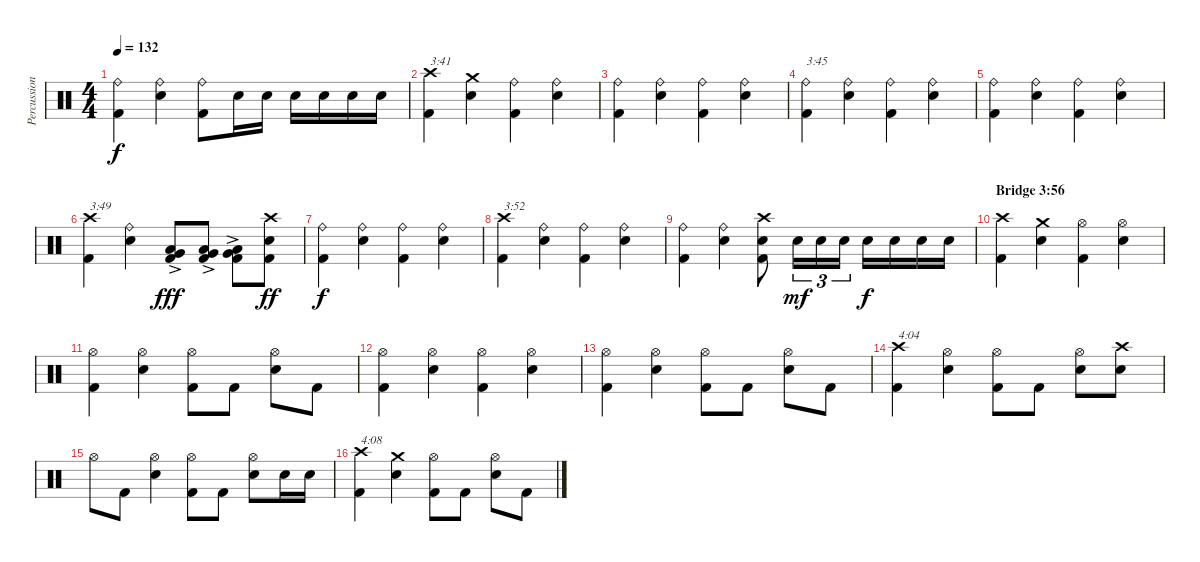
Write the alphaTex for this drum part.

\track ("Percussion" "Percussion") {instrument percussion}
\staff {score}
\articulation defaults
\ts (4 4)
\tempo 132
\clef neutral
\ks c
("Kick (hit) 2" "Ride (bell)").4{dy f} ("Electric Snare (hit)" "Ride (bell)").4 ("Kick (hit) 2" "Ride (bell)").8 "Electric Snare (hit)".16 "Electric Snare (hit)".16 "Electric Snare (hit)".16 "Electric Snare (hit)".16 "Electric Snare (hit)".16 "Electric Snare (hit)".16 |
("Kick (hit) 2" "Crash high (hit)").4{txt "3:41"} ("Electric Snare (hit)" "Crash medium (hit)").4 ("Kick (hit) 2" "Ride (bell)").4 ("Electric Snare (hit)" "Ride (bell)").4 |
("Kick (hit) 2" "Ride (bell)").4 ("Electric Snare (hit)" "Ride (bell)").4 ("Kick (hit) 2" "Ride (bell)").4 ("Electric Snare (hit)" "Ride (bell)").4 |
("Kick (hit) 2" "Ride (bell)").4{txt "3:45"} ("Electric Snare (hit)" "Ride (bell)").4 ("Kick (hit) 2" "Ride (bell)").4 ("Electric Snare (hit)" "Ride (bell)").4 |
("Kick (hit) 2" "Ride (bell)").4 ("Electric Snare (hit)" "Ride (bell)").4 ("Kick (hit) 2" "Ride (bell)").4 ("Electric Snare (hit)" "Ride (bell)").4 |
("Kick (hit) 2" "Crash high (hit)").4{txt "3:49"} ("Electric Snare (hit)" "Ride (bell)").4 ("Kick (hit) 2" "Low Tom (hit)"{ac} "Very Low Tom (hit)").8{dy fff} ("Kick (hit) 2" "Low Tom (hit)"{ac} "Very Low Tom (hit)").8 ("Kick (hit) 2" "Low Tom (hit)"{ac} "Very Low Tom (hit)").8 ("Kick (hit) 2" "Electric Snare (hit)" "Crash high (hit)").8{dy ff} |
("Kick (hit) 2" "Ride (bell)").4{dy f} ("Electric Snare (hit)" "Ride (bell)").4 ("Kick (hit) 2" "Ride (bell)").4 ("Electric Snare (hit)" "Ride (bell)").4 |
("Kick (hit) 2" "Crash high (hit)").4{txt "3:52"} ("Electric Snare (hit)" "Ride (bell)").4 ("Kick (hit) 2" "Ride (bell)").4 ("Electric Snare (hit)" "Ride (bell)").4 |
("Kick (hit) 2" "Ride (bell)").4 ("Electric Snare (hit)" "Ride (bell)").4 ("Kick (hit) 2" "Electric Snare (hit)" "Crash high (hit)").8 "Electric Snare (hit)".16{tu (3 2) dy mf} "Electric Snare (hit)".16{tu (3 2)} "Electric Snare (hit)".16{tu (3 2)} "Electric Snare (hit)".16{dy f} "Electric Snare (hit)".16 "Electric Snare (hit)".16 "Electric Snare (hit)".16 |
\section ("" "Bridge 3:56")
("Kick (hit) 2" "Crash high (hit)").4 ("Electric Snare (hit)" "Crash medium (hit)").4 ("Kick (hit) 2" "Hi-Hat (open)").4 ("Electric Snare (hit)" "Hi-Hat (open)").4 |
("Kick (hit) 2" "Hi-Hat (open)").4 ("Electric Snare (hit)" "Hi-Hat (open)").4 ("Kick (hit) 2" "Hi-Hat (open)").8 "Kick (hit) 2".8 ("Electric Snare (hit)" "Hi-Hat (open)").8 "Kick (hit) 2".8 |
("Kick (hit) 2" "Hi-Hat (open)").4 ("Electric Snare (hit)" "Hi-Hat (open)").4 ("Kick (hit) 2" "Hi-Hat (open)").4 ("Electric Snare (hit)" "Hi-Hat (open)").4 |
("Kick (hit) 2" "Hi-Hat (open)").4 ("Electric Snare (hit)" "Hi-Hat (open)").4 ("Kick (hit) 2" "Hi-Hat (open)").8 "Kick (hit) 2".8 ("Electric Snare (hit)" "Hi-Hat (open)").8 "Kick (hit) 2".8 |
("Kick (hit) 2" "Crash high (hit)").4{txt "4:04"} ("Electric Snare (hit)" "Hi-Hat (open)").4 ("Kick (hit) 2" "Hi-Hat (open)").8 "Kick (hit) 2".8 ("Electric Snare (hit)" "Hi-Hat (open)").8 ("Electric Snare (hit)" "Crash high (hit)").8 |
"Hi-Hat (open)".8 "Kick (hit) 2".8 ("Electric Snare (hit)" "Hi-Hat (open)").4 ("Kick (hit) 2" "Hi-Hat (open)").8 "Kick (hit) 2".8 ("Electric Snare (hit)" "Hi-Hat (open)").8 "Electric Snare (hit)".16 "Electric Snare (hit)".16 |
("Kick (hit) 2" "Crash high (hit)").4{txt "4:08"} ("Electric Snare (hit)" "Crash medium (hit)").4 ("Kick (hit) 2" "Hi-Hat (open)").8 "Kick (hit) 2".8 ("Electric Snare (hit)" "Hi-Hat (open)").8 "Kick (hit) 2".8
